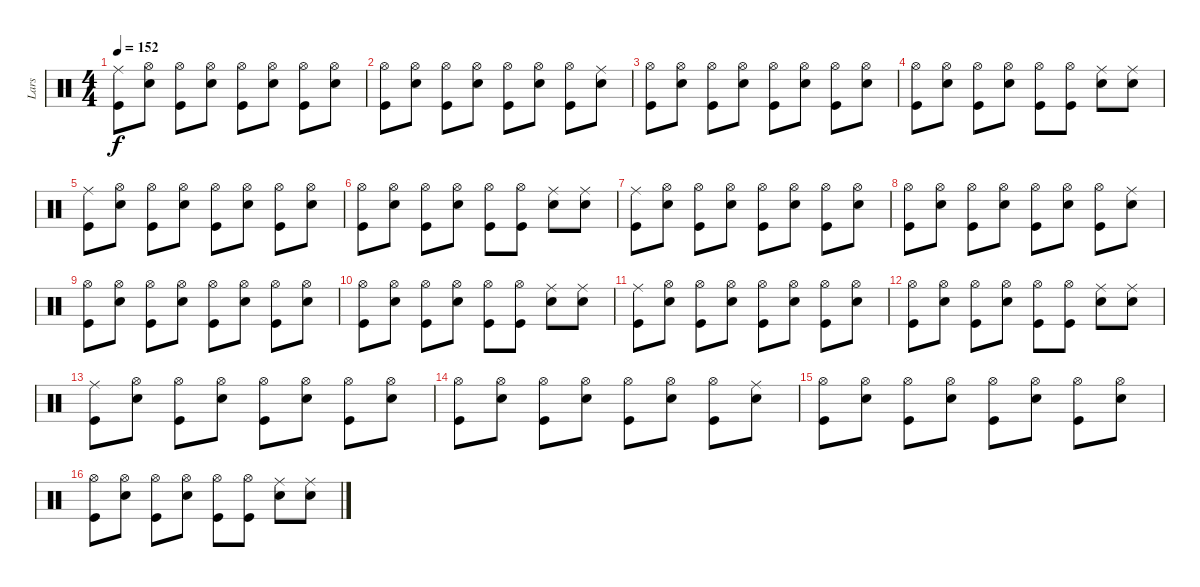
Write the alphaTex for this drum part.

\track ("Lars" "Lars") {instrument percussion}
\staff {score}
\articulation defaults
\ts (4 4)
\tempo 152
\clef neutral
\ks c
("Ride (middle)" "Kick (hit)").8{dy f} ("Hi-Hat (open)" "Snare (hit) 2").8 ("Hi-Hat (open)" "Kick (hit)").8 ("Hi-Hat (open)" "Snare (hit) 2").8 ("Hi-Hat (open)" "Kick (hit)").8 ("Hi-Hat (open)" "Snare (hit) 2").8 ("Hi-Hat (open)" "Kick (hit)").8 ("Hi-Hat (open)" "Snare (hit) 2").8 |
("Hi-Hat (open)" "Kick (hit)").8 ("Hi-Hat (open)" "Snare (hit) 2").8 ("Hi-Hat (open)" "Kick (hit)").8 ("Hi-Hat (open)" "Snare (hit) 2").8 ("Hi-Hat (open)" "Kick (hit)").8 ("Hi-Hat (open)" "Snare (hit) 2").8 ("Hi-Hat (open)" "Kick (hit)").8 ("Ride (middle)" "Snare (hit) 2").8 |
("Hi-Hat (open)" "Kick (hit)").8 ("Hi-Hat (open)" "Snare (hit) 2").8 ("Hi-Hat (open)" "Kick (hit)").8 ("Hi-Hat (open)" "Snare (hit) 2").8 ("Hi-Hat (open)" "Kick (hit)").8 ("Hi-Hat (open)" "Snare (hit) 2").8 ("Hi-Hat (open)" "Kick (hit)").8 ("Hi-Hat (open)" "Snare (hit) 2").8 |
("Hi-Hat (open)" "Kick (hit)").8 ("Hi-Hat (open)" "Snare (hit) 2").8 ("Hi-Hat (open)" "Kick (hit)").8 ("Hi-Hat (open)" "Snare (hit) 2").8 ("Hi-Hat (open)" "Kick (hit)").8 ("Hi-Hat (open)" "Kick (hit)").8 ("Ride (middle)" "Snare (hit) 2").8 ("Ride (middle)" "Snare (hit) 2").8 |
("Ride (middle)" "Kick (hit)").8 ("Hi-Hat (open)" "Snare (hit) 2").8 ("Hi-Hat (open)" "Kick (hit)").8 ("Hi-Hat (open)" "Snare (hit) 2").8 ("Hi-Hat (open)" "Kick (hit)").8 ("Hi-Hat (open)" "Snare (hit) 2").8 ("Hi-Hat (open)" "Kick (hit)").8 ("Hi-Hat (open)" "Snare (hit) 2").8 |
("Hi-Hat (open)" "Kick (hit)").8 ("Hi-Hat (open)" "Snare (hit) 2").8 ("Hi-Hat (open)" "Kick (hit)").8 ("Hi-Hat (open)" "Snare (hit) 2").8 ("Hi-Hat (open)" "Kick (hit)").8 ("Hi-Hat (open)" "Kick (hit)").8 ("Ride (middle)" "Snare (hit) 2").8 ("Ride (middle)" "Snare (hit) 2").8 |
("Ride (middle)" "Kick (hit)").8 ("Hi-Hat (open)" "Snare (hit) 2").8 ("Hi-Hat (open)" "Kick (hit)").8 ("Hi-Hat (open)" "Snare (hit) 2").8 ("Hi-Hat (open)" "Kick (hit)").8 ("Hi-Hat (open)" "Snare (hit) 2").8 ("Hi-Hat (open)" "Kick (hit)").8 ("Hi-Hat (open)" "Snare (hit) 2").8 |
("Hi-Hat (open)" "Kick (hit)").8 ("Hi-Hat (open)" "Snare (hit) 2").8 ("Hi-Hat (open)" "Kick (hit)").8 ("Hi-Hat (open)" "Snare (hit) 2").8 ("Hi-Hat (open)" "Kick (hit)").8 ("Hi-Hat (open)" "Snare (hit) 2").8 ("Hi-Hat (open)" "Kick (hit)").8 ("Ride (middle)" "Snare (hit) 2").8 |
("Hi-Hat (open)" "Kick (hit)").8 ("Hi-Hat (open)" "Snare (hit) 2").8 ("Hi-Hat (open)" "Kick (hit)").8 ("Hi-Hat (open)" "Snare (hit) 2").8 ("Hi-Hat (open)" "Kick (hit)").8 ("Hi-Hat (open)" "Snare (hit) 2").8 ("Hi-Hat (open)" "Kick (hit)").8 ("Hi-Hat (open)" "Snare (hit) 2").8 |
("Hi-Hat (open)" "Kick (hit)").8 ("Hi-Hat (open)" "Snare (hit) 2").8 ("Hi-Hat (open)" "Kick (hit)").8 ("Hi-Hat (open)" "Snare (hit) 2").8 ("Hi-Hat (open)" "Kick (hit)").8 ("Hi-Hat (open)" "Kick (hit)").8 ("Ride (middle)" "Snare (hit) 2").8 ("Ride (middle)" "Snare (hit) 2").8 |
("Ride (middle)" "Kick (hit)").8 ("Hi-Hat (open)" "Snare (hit) 2").8 ("Hi-Hat (open)" "Kick (hit)").8 ("Hi-Hat (open)" "Snare (hit) 2").8 ("Hi-Hat (open)" "Kick (hit)").8 ("Hi-Hat (open)" "Snare (hit) 2").8 ("Hi-Hat (open)" "Kick (hit)").8 ("Hi-Hat (open)" "Snare (hit) 2").8 |
("Hi-Hat (open)" "Kick (hit)").8 ("Hi-Hat (open)" "Snare (hit) 2").8 ("Hi-Hat (open)" "Kick (hit)").8 ("Hi-Hat (open)" "Snare (hit) 2").8 ("Hi-Hat (open)" "Kick (hit)").8 ("Hi-Hat (open)" "Kick (hit)").8 ("Ride (middle)" "Snare (hit) 2").8 ("Ride (middle)" "Snare (hit) 2").8 |
("Ride (middle)" "Kick (hit)").8 ("Hi-Hat (open)" "Snare (hit) 2").8 ("Hi-Hat (open)" "Kick (hit)").8 ("Hi-Hat (open)" "Snare (hit) 2").8 ("Hi-Hat (open)" "Kick (hit)").8 ("Hi-Hat (open)" "Snare (hit) 2").8 ("Hi-Hat (open)" "Kick (hit)").8 ("Hi-Hat (open)" "Snare (hit) 2").8 |
("Hi-Hat (open)" "Kick (hit)").8 ("Hi-Hat (open)" "Snare (hit) 2").8 ("Hi-Hat (open)" "Kick (hit)").8 ("Hi-Hat (open)" "Snare (hit) 2").8 ("Hi-Hat (open)" "Kick (hit)").8 ("Hi-Hat (open)" "Snare (hit) 2").8 ("Hi-Hat (open)" "Kick (hit)").8 ("Ride (middle)" "Snare (hit) 2").8 |
("Hi-Hat (open)" "Kick (hit)").8 ("Hi-Hat (open)" "Snare (hit) 2").8 ("Hi-Hat (open)" "Kick (hit)").8 ("Hi-Hat (open)" "Snare (hit) 2").8 ("Hi-Hat (open)" "Kick (hit)").8 ("Hi-Hat (open)" "Snare (hit) 2").8 ("Hi-Hat (open)" "Kick (hit)").8 ("Hi-Hat (open)" "Snare (hit) 2").8 |
("Hi-Hat (open)" "Kick (hit)").8 ("Hi-Hat (open)" "Snare (hit) 2").8 ("Hi-Hat (open)" "Kick (hit)").8 ("Hi-Hat (open)" "Snare (hit) 2").8 ("Hi-Hat (open)" "Kick (hit)").8 ("Hi-Hat (open)" "Kick (hit)").8 ("Ride (middle)" "Snare (hit) 2").8 ("Ride (middle)" "Snare (hit) 2").8
